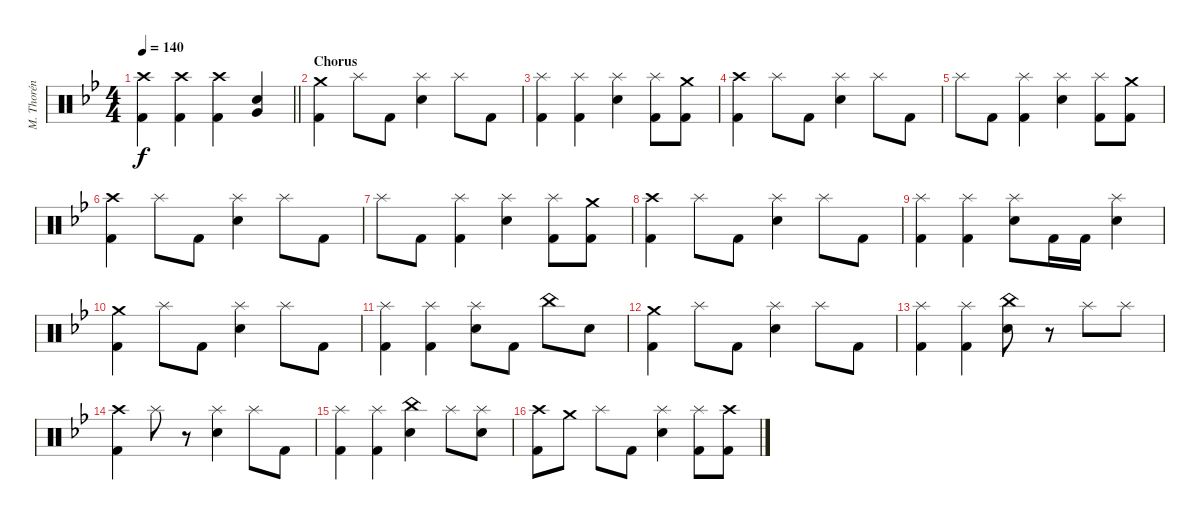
\track ("M. Thorén (Drums)" "M. Thorén ") {instrument percussion}
\staff {score}
\articulation defaults
\ts (4 4)
\tempo 140
\clef neutral
\barLineRight lightlight
\ks gminor
("Crash high (hit)" "Kick (hit) 2").4{dy f} ("Crash high (hit)" "Kick (hit) 2").4 ("Crash high (hit)" "Kick (hit) 2").4 ("Electric Snare (hit)" "Very Low Tom (hit)").4 |
\section ("" "Chorus")
("Crash medium (hit)" "Kick (hit) 2").4 "Splash (hit)".8 "Kick (hit) 2".8 ("Splash (hit)" "Electric Snare (hit)").4 "Splash (hit)".8 "Kick (hit) 2".8 |
("Splash (hit)" "Kick (hit) 2").4 ("Splash (hit)" "Kick (hit) 2").4 ("Splash (hit)" "Electric Snare (hit)").4 ("Splash (hit)" "Kick (hit) 2").8 ("Crash medium (hit)" "Kick (hit) 2").8 |
("Crash high (hit)" "Kick (hit) 2").4 "Splash (hit)".8 "Kick (hit) 2".8 ("Splash (hit)" "Electric Snare (hit)").4 "Splash (hit)".8 "Kick (hit) 2".8 |
"Splash (hit)".8 "Kick (hit) 2".8 ("Splash (hit)" "Kick (hit) 2").4 ("Splash (hit)" "Electric Snare (hit)").4 ("Splash (hit)" "Kick (hit) 2").8 ("Crash medium (hit)" "Kick (hit) 2").8 |
("Crash high (hit)" "Kick (hit) 2").4 "Splash (hit)".8 "Kick (hit) 2".8 ("Splash (hit)" "Electric Snare (hit)").4 "Splash (hit)".8 "Kick (hit) 2".8 |
"Splash (hit)".8 "Kick (hit) 2".8 ("Splash (hit)" "Kick (hit) 2").4 ("Splash (hit)" "Electric Snare (hit)").4 ("Splash (hit)" "Kick (hit) 2").8 ("Crash medium (hit)" "Kick (hit) 2").8 |
("Crash high (hit)" "Kick (hit) 2").4 "Splash (hit)".8 "Kick (hit) 2".8 ("Splash (hit)" "Electric Snare (hit)").4 "Splash (hit)".8 "Kick (hit) 2".8 |
("Splash (hit)" "Kick (hit) 2").4 ("Splash (hit)" "Kick (hit) 2").4 ("Splash (hit)" "Electric Snare (hit)").8 "Kick (hit) 2".16 "Kick (hit) 2".16 ("Splash (hit)" "Electric Snare (hit)").4 |
("Crash medium (hit)" "Kick (hit) 2").4 "Splash (hit)".8 "Kick (hit) 2".8 ("Splash (hit)" "Electric Snare (hit)").4 "Splash (hit)".8 "Kick (hit) 2".8 |
("Splash (hit)" "Kick (hit) 2").4 ("Splash (hit)" "Kick (hit) 2").4 ("Splash (hit)" "Electric Snare (hit)").8 "Kick (hit) 2".8 "China (hit)".8 "Electric Snare (hit)".8 |
("Crash medium (hit)" "Kick (hit) 2").4 "Splash (hit)".8 "Kick (hit) 2".8 ("Splash (hit)" "Electric Snare (hit)").4 "Splash (hit)".8 "Kick (hit) 2".8 |
("Splash (hit)" "Kick (hit) 2").4 ("Splash (hit)" "Kick (hit) 2").4 ("China (hit)" "Electric Snare (hit)").8 r.8 "Splash (hit)".8 "Splash (hit)".8 |
("Crash high (hit)" "Kick (hit) 2").4 "Splash (hit)".8 r.8 ("Splash (hit)" "Electric Snare (hit)").4 "Splash (hit)".8 "Kick (hit) 2".8 |
("Splash (hit)" "Kick (hit) 2").4 ("Splash (hit)" "Kick (hit) 2").4 ("China (hit)" "Electric Snare (hit)").4 "Splash (hit)".8 ("Splash (hit)" "Electric Snare (hit)").8 |
("Crash high (hit)" "Kick (hit) 2").8 "Crash medium (hit)".8 "Splash (hit)".8 "Kick (hit) 2".8 ("Splash (hit)" "Electric Snare (hit)").4 ("Splash (hit)" "Kick (hit) 2").8 ("Crash high (hit)" "Kick (hit) 2").8
